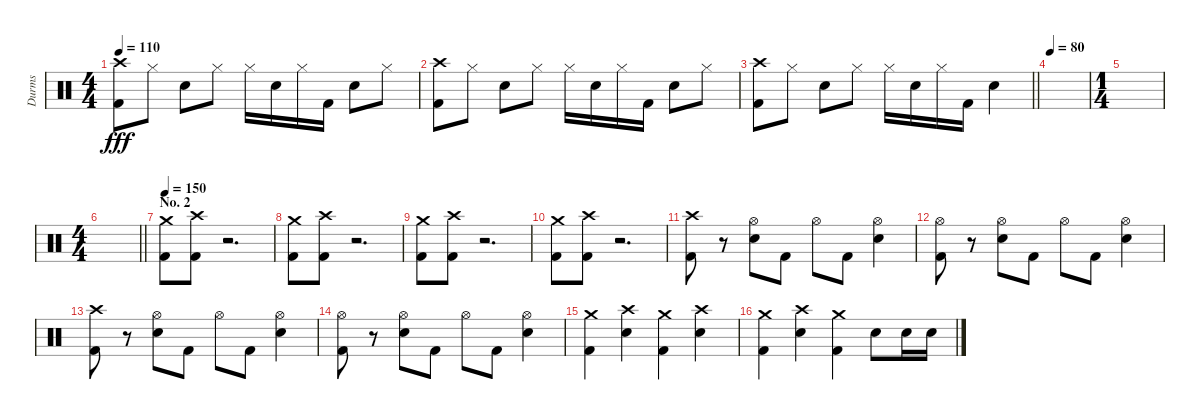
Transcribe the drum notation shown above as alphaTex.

\track ("Durms" "Durms") {instrument percussion}
\staff {score}
\articulation defaults
\ts (4 4)
\tempo 110
\clef neutral
\ks c
("Crash high (hit)" "Kick (hit) 2").8{dy fff} "Hi-Hat (closed)".8 "Electric Snare (hit)".8 "Hi-Hat (closed)".8 "Hi-Hat (closed)".16 "Electric Snare (hit)".16 "Hi-Hat (closed)".16 "Kick (hit) 2".16 "Electric Snare (hit)".8 "Hi-Hat (closed)".8 |
("Crash high (hit)" "Kick (hit) 2").8 "Hi-Hat (closed)".8 "Electric Snare (hit)".8 "Hi-Hat (closed)".8 "Hi-Hat (closed)".16 "Electric Snare (hit)".16 "Hi-Hat (closed)".16 "Kick (hit) 2".16 "Electric Snare (hit)".8 "Hi-Hat (closed)".8 |
\barLineRight lightlight
("Crash high (hit)" "Kick (hit) 2").8 "Hi-Hat (closed)".8 "Electric Snare (hit)".8 "Hi-Hat (closed)".8 "Hi-Hat (closed)".16 "Electric Snare (hit)".16 "Hi-Hat (closed)".16 "Kick (hit) 2".16 "Electric Snare (hit)".4 |
\tempo 80
|
\ts (1 4)
|
\ts (4 4)
\barLineRight lightlight
|
\section ("" "No. 2")
\tempo 150
("Crash medium (hit)" "Kick (hit) 2").8 ("Crash high (hit)" "Kick (hit) 2").8 r.2{d} |
("Crash medium (hit)" "Kick (hit) 2").8 ("Crash high (hit)" "Kick (hit) 2").8 r.2{d} |
("Crash medium (hit)" "Kick (hit) 2").8 ("Crash high (hit)" "Kick (hit) 2").8 r.2{d} |
("Crash medium (hit)" "Kick (hit) 2").8 ("Crash high (hit)" "Kick (hit) 2").8 r.2{d} |
("Crash high (hit)" "Kick (hit) 2").8 r.8 ("Hi-Hat (open)" "Electric Snare (hit)").8 "Kick (hit) 2".8 "Hi-Hat (open)".8 "Kick (hit) 2".8 ("Hi-Hat (open)" "Electric Snare (hit)").4 |
("Hi-Hat (open)" "Kick (hit) 2").8 r.8 ("Hi-Hat (open)" "Electric Snare (hit)").8 "Kick (hit) 2".8 "Hi-Hat (open)".8 "Kick (hit) 2".8 ("Hi-Hat (open)" "Electric Snare (hit)").4 |
("Crash high (hit)" "Kick (hit) 2").8 r.8 ("Hi-Hat (open)" "Electric Snare (hit)").8 "Kick (hit) 2".8 "Hi-Hat (open)".8 "Kick (hit) 2".8 ("Hi-Hat (open)" "Electric Snare (hit)").4 |
("Hi-Hat (open)" "Kick (hit) 2").8 r.8 ("Hi-Hat (open)" "Electric Snare (hit)").8 "Kick (hit) 2".8 "Hi-Hat (open)".8 "Kick (hit) 2".8 ("Hi-Hat (open)" "Electric Snare (hit)").4 |
("Crash medium (hit)" "Kick (hit) 2").4 ("Crash high (hit)" "Electric Snare (hit)").4 ("Crash medium (hit)" "Kick (hit) 2").4 ("Crash high (hit)" "Electric Snare (hit)").4 |
("Crash medium (hit)" "Kick (hit) 2").4 ("Crash high (hit)" "Electric Snare (hit)").4 ("Crash medium (hit)" "Kick (hit) 2").4 "Electric Snare (hit)".8 "Electric Snare (hit)".16 "Electric Snare (hit)".16
